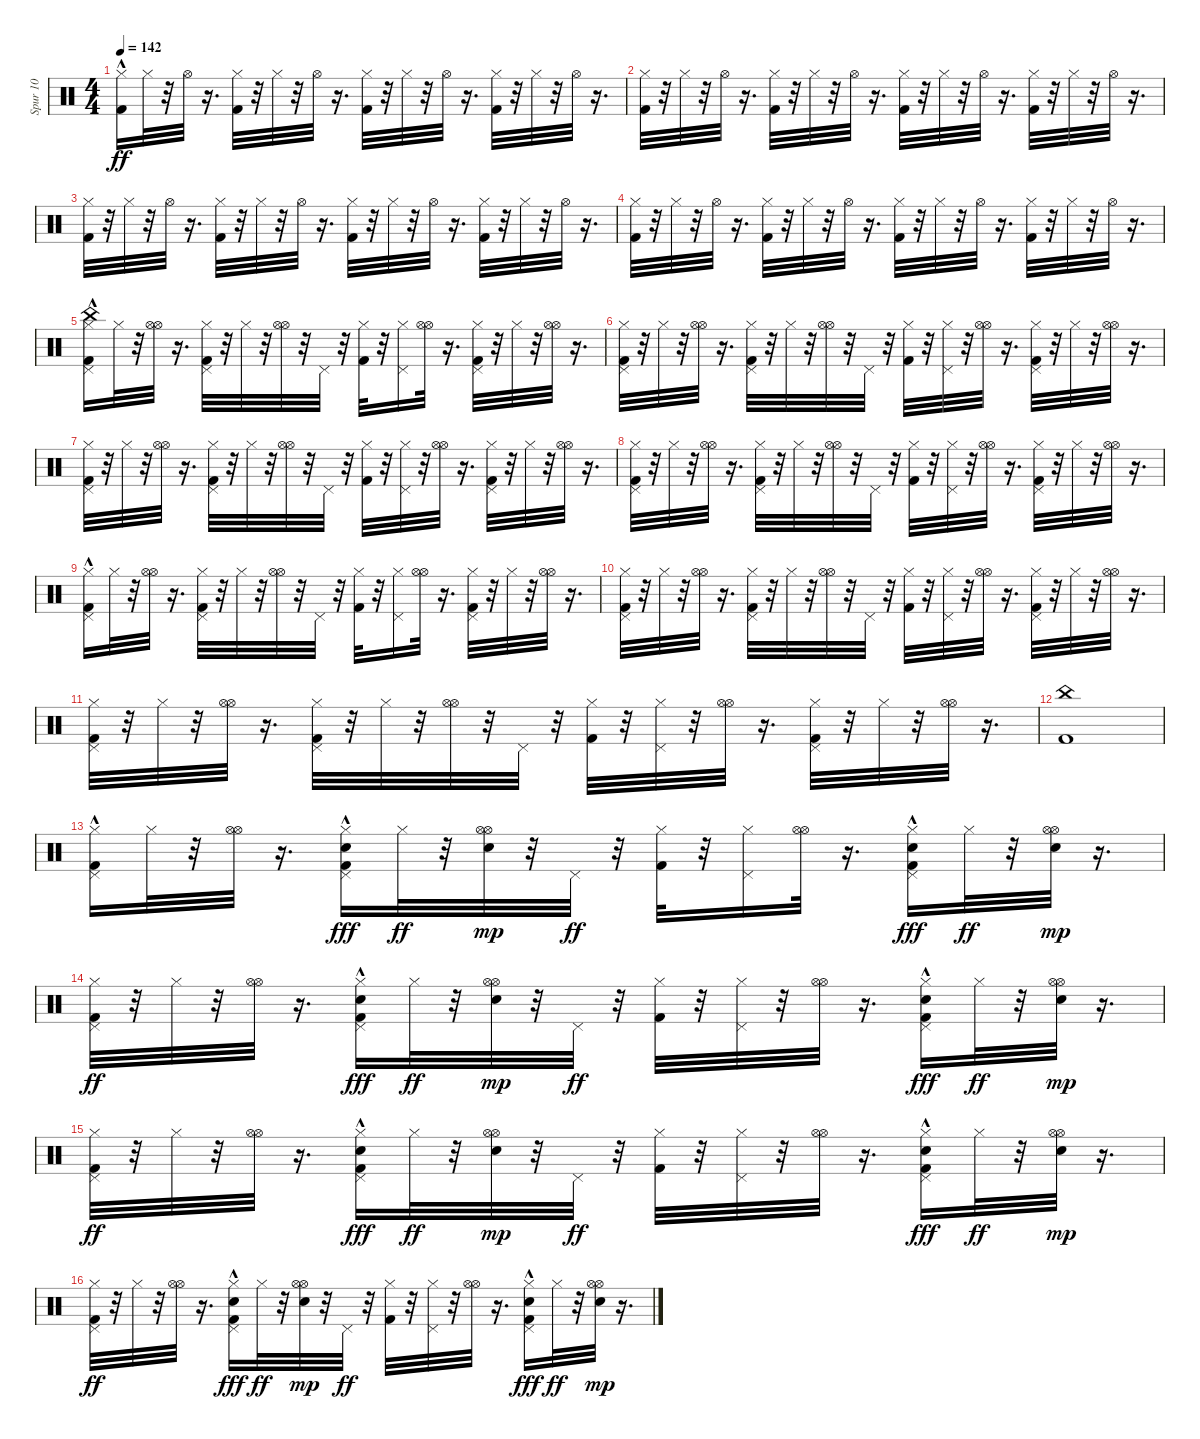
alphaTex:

\track ("Spur 10" "Spur 10") {instrument percussion}
\staff {score}
\articulation defaults
\ts (4 4)
\tempo 142
\clef neutral
\ks c
("Kick (hit) 2"{hac} "Hi-Hat (closed)").16{dy ff} "Hi-Hat (closed)".32 r.32 "Hi-Hat (open)".32 r.16{d} ("Kick (hit) 2" "Hi-Hat (closed)").32 r.32 "Hi-Hat (closed)".32 r.32 "Hi-Hat (open)".32 r.16{d} ("Kick (hit) 2" "Hi-Hat (closed)").32 r.32 "Hi-Hat (closed)".32 r.32 "Hi-Hat (open)".32 r.16{d} ("Kick (hit) 2" "Hi-Hat (closed)").32 r.32 "Hi-Hat (closed)".32 r.32 "Hi-Hat (open)".32 r.16{d} |
("Kick (hit) 2" "Hi-Hat (closed)").32 r.32 "Hi-Hat (closed)".32 r.32 "Hi-Hat (open)".32 r.16{d} ("Kick (hit) 2" "Hi-Hat (closed)").32 r.32 "Hi-Hat (closed)".32 r.32 "Hi-Hat (open)".32 r.16{d} ("Kick (hit) 2" "Hi-Hat (closed)").32 r.32 "Hi-Hat (closed)".32 r.32 "Hi-Hat (open)".32 r.16{d} ("Kick (hit) 2" "Hi-Hat (closed)").32 r.32 "Hi-Hat (closed)".32 r.32 "Hi-Hat (open)".32 r.16{d} |
("Kick (hit) 2" "Hi-Hat (closed)").32 r.32 "Hi-Hat (closed)".32 r.32 "Hi-Hat (open)".32 r.16{d} ("Kick (hit) 2" "Hi-Hat (closed)").32 r.32 "Hi-Hat (closed)".32 r.32 "Hi-Hat (open)".32 r.16{d} ("Kick (hit) 2" "Hi-Hat (closed)").32 r.32 "Hi-Hat (closed)".32 r.32 "Hi-Hat (open)".32 r.16{d} ("Kick (hit) 2" "Hi-Hat (closed)").32 r.32 "Hi-Hat (closed)".32 r.32 "Hi-Hat (open)".32 r.16{d} |
("Kick (hit) 2" "Hi-Hat (closed)").32 r.32 "Hi-Hat (closed)".32 r.32 "Hi-Hat (open)".32 r.16{d} ("Kick (hit) 2" "Hi-Hat (closed)").32 r.32 "Hi-Hat (closed)".32 r.32 "Hi-Hat (open)".32 r.16{d} ("Kick (hit) 2" "Hi-Hat (closed)").32 r.32 "Hi-Hat (closed)".32 r.32 "Hi-Hat (open)".32 r.16{d} ("Kick (hit) 2" "Hi-Hat (closed)").32 r.32 "Hi-Hat (closed)".32 r.32 "Hi-Hat (open)".32 r.16{d} |
("Kick (hit) 2"{hac} "Hi-Hat (closed)" "Pedal Hi-Hat (hit)" "China (hit)").16 "Hi-Hat (closed)".32 r.32 ("Hi-Hat (open)" "Hi-Hat (open)").32 r.16{d} ("Kick (hit) 2" "Hi-Hat (closed)" "Pedal Hi-Hat (hit)").32 r.32 "Hi-Hat (closed)".32 r.32 ("Hi-Hat (open)" "Hi-Hat (open)").32 r.32 "Pedal Hi-Hat (hit)".32 r.32 ("Kick (hit) 2" "Hi-Hat (closed)").32 r.32 ("Hi-Hat (closed)" "Pedal Hi-Hat (hit)").16 ("Hi-Hat (open)" "Hi-Hat (open)").32 r.16{d} ("Kick (hit) 2" "Hi-Hat (closed)" "Pedal Hi-Hat (hit)").32 r.32 "Hi-Hat (closed)".32 r.32 ("Hi-Hat (open)" "Hi-Hat (open)").32 r.16{d} |
("Kick (hit) 2" "Hi-Hat (closed)" "Pedal Hi-Hat (hit)").32 r.32 "Hi-Hat (closed)".32 r.32 ("Hi-Hat (open)" "Hi-Hat (open)").32 r.16{d} ("Kick (hit) 2" "Hi-Hat (closed)" "Pedal Hi-Hat (hit)").32 r.32 "Hi-Hat (closed)".32 r.32 ("Hi-Hat (open)" "Hi-Hat (open)").32 r.32 "Pedal Hi-Hat (hit)".32 r.32 ("Kick (hit) 2" "Hi-Hat (closed)").32 r.32 ("Hi-Hat (closed)" "Pedal Hi-Hat (hit)").32 r.32 ("Hi-Hat (open)" "Hi-Hat (open)").32 r.16{d} ("Kick (hit) 2" "Hi-Hat (closed)" "Pedal Hi-Hat (hit)").32 r.32 "Hi-Hat (closed)".32 r.32 ("Hi-Hat (open)" "Hi-Hat (open)").32 r.16{d} |
("Kick (hit) 2" "Hi-Hat (closed)" "Pedal Hi-Hat (hit)").32 r.32 "Hi-Hat (closed)".32 r.32 ("Hi-Hat (open)" "Hi-Hat (open)").32 r.16{d} ("Kick (hit) 2" "Hi-Hat (closed)" "Pedal Hi-Hat (hit)").32 r.32 "Hi-Hat (closed)".32 r.32 ("Hi-Hat (open)" "Hi-Hat (open)").32 r.32 "Pedal Hi-Hat (hit)".32 r.32 ("Kick (hit) 2" "Hi-Hat (closed)").32 r.32 ("Hi-Hat (closed)" "Pedal Hi-Hat (hit)").32 r.32 ("Hi-Hat (open)" "Hi-Hat (open)").32 r.16{d} ("Kick (hit) 2" "Hi-Hat (closed)" "Pedal Hi-Hat (hit)").32 r.32 "Hi-Hat (closed)".32 r.32 ("Hi-Hat (open)" "Hi-Hat (open)").32 r.16{d} |
("Kick (hit) 2" "Hi-Hat (closed)" "Pedal Hi-Hat (hit)").32 r.32 "Hi-Hat (closed)".32 r.32 ("Hi-Hat (open)" "Hi-Hat (open)").32 r.16{d} ("Kick (hit) 2" "Hi-Hat (closed)" "Pedal Hi-Hat (hit)").32 r.32 "Hi-Hat (closed)".32 r.32 ("Hi-Hat (open)" "Hi-Hat (open)").32 r.32 "Pedal Hi-Hat (hit)".32 r.32 ("Kick (hit) 2" "Hi-Hat (closed)").32 r.32 ("Hi-Hat (closed)" "Pedal Hi-Hat (hit)").32 r.32 ("Hi-Hat (open)" "Hi-Hat (open)").32 r.16{d} ("Kick (hit) 2" "Hi-Hat (closed)" "Pedal Hi-Hat (hit)").32 r.32 "Hi-Hat (closed)".32 r.32 ("Hi-Hat (open)" "Hi-Hat (open)").32 r.16{d} |
("Kick (hit) 2"{hac} "Hi-Hat (closed)" "Pedal Hi-Hat (hit)").16 "Hi-Hat (closed)".32 r.32 ("Hi-Hat (open)" "Hi-Hat (open)").32 r.16{d} ("Kick (hit) 2" "Hi-Hat (closed)" "Pedal Hi-Hat (hit)").32 r.32 "Hi-Hat (closed)".32 r.32 ("Hi-Hat (open)" "Hi-Hat (open)").32 r.32 "Pedal Hi-Hat (hit)".32 r.32 ("Kick (hit) 2" "Hi-Hat (closed)").32 r.32 ("Hi-Hat (closed)" "Pedal Hi-Hat (hit)").16 ("Hi-Hat (open)" "Hi-Hat (open)").32 r.16{d} ("Kick (hit) 2" "Hi-Hat (closed)" "Pedal Hi-Hat (hit)").32 r.32 "Hi-Hat (closed)".32 r.32 ("Hi-Hat (open)" "Hi-Hat (open)").32 r.16{d} |
("Kick (hit) 2" "Hi-Hat (closed)" "Pedal Hi-Hat (hit)").32 r.32 "Hi-Hat (closed)".32 r.32 ("Hi-Hat (open)" "Hi-Hat (open)").32 r.16{d} ("Kick (hit) 2" "Hi-Hat (closed)" "Pedal Hi-Hat (hit)").32 r.32 "Hi-Hat (closed)".32 r.32 ("Hi-Hat (open)" "Hi-Hat (open)").32 r.32 "Pedal Hi-Hat (hit)".32 r.32 ("Kick (hit) 2" "Hi-Hat (closed)").32 r.32 ("Hi-Hat (closed)" "Pedal Hi-Hat (hit)").32 r.32 ("Hi-Hat (open)" "Hi-Hat (open)").32 r.16{d} ("Kick (hit) 2" "Hi-Hat (closed)" "Pedal Hi-Hat (hit)").32 r.32 "Hi-Hat (closed)".32 r.32 ("Hi-Hat (open)" "Hi-Hat (open)").32 r.16{d} |
("Kick (hit) 2" "Hi-Hat (closed)" "Pedal Hi-Hat (hit)").32 r.32 "Hi-Hat (closed)".32 r.32 ("Hi-Hat (open)" "Hi-Hat (open)").32 r.16{d} ("Kick (hit) 2" "Hi-Hat (closed)" "Pedal Hi-Hat (hit)").32 r.32 "Hi-Hat (closed)".32 r.32 ("Hi-Hat (open)" "Hi-Hat (open)").32 r.32 "Pedal Hi-Hat (hit)".32 r.32 ("Kick (hit) 2" "Hi-Hat (closed)").32 r.32 ("Hi-Hat (closed)" "Pedal Hi-Hat (hit)").32 r.32 ("Hi-Hat (open)" "Hi-Hat (open)").32 r.16{d} ("Kick (hit) 2" "Hi-Hat (closed)" "Pedal Hi-Hat (hit)").32 r.32 "Hi-Hat (closed)".32 r.32 ("Hi-Hat (open)" "Hi-Hat (open)").32 r.16{d} |
("Kick (hit) 2" "China (hit)").1 |
("Kick (hit) 2"{hac} "Hi-Hat (closed)" "Pedal Hi-Hat (hit)").16 "Hi-Hat (closed)".32 r.32 ("Hi-Hat (open)" "Hi-Hat (open)").32 r.16{d} ("Kick (hit) 2" "Hi-Hat (closed)" "Pedal Hi-Hat (hit)" "Hand Clap (hit)"{hac}).16{dy fff balance 16} "Hi-Hat (closed)".32{dy ff} r.32 ("Hi-Hat (open)" "Hi-Hat (open)" "Hand Clap (hit)").32{dy mp balance 0} r.32 "Pedal Hi-Hat (hit)".32{dy ff} r.32 ("Kick (hit) 2" "Hi-Hat (closed)").32 r.32 ("Hi-Hat (closed)" "Pedal Hi-Hat (hit)").16 ("Hi-Hat (open)" "Hi-Hat (open)").32 r.16{d} ("Kick (hit) 2" "Hi-Hat (closed)" "Pedal Hi-Hat (hit)" "Hand Clap (hit)"{hac}).16{dy fff balance 16} "Hi-Hat (closed)".32{dy ff} r.32 ("Hi-Hat (open)" "Hi-Hat (open)" "Hand Clap (hit)").32{dy mp balance 0} r.16{d} |
("Kick (hit) 2" "Hi-Hat (closed)" "Pedal Hi-Hat (hit)").32{dy ff} r.32 "Hi-Hat (closed)".32 r.32 ("Hi-Hat (open)" "Hi-Hat (open)").32 r.16{d} ("Kick (hit) 2" "Hi-Hat (closed)" "Pedal Hi-Hat (hit)" "Hand Clap (hit)"{hac}).16{dy fff balance 16} "Hi-Hat (closed)".32{dy ff} r.32 ("Hi-Hat (open)" "Hi-Hat (open)" "Hand Clap (hit)").32{dy mp balance 0} r.32 "Pedal Hi-Hat (hit)".32{dy ff} r.32 ("Kick (hit) 2" "Hi-Hat (closed)").32 r.32 ("Hi-Hat (closed)" "Pedal Hi-Hat (hit)").32 r.32 ("Hi-Hat (open)" "Hi-Hat (open)").32 r.16{d} ("Kick (hit) 2" "Hi-Hat (closed)" "Pedal Hi-Hat (hit)" "Hand Clap (hit)"{hac}).16{dy fff balance 16} "Hi-Hat (closed)".32{dy ff} r.32 ("Hi-Hat (open)" "Hi-Hat (open)" "Hand Clap (hit)").32{dy mp balance 0} r.16{d} |
("Kick (hit) 2" "Hi-Hat (closed)" "Pedal Hi-Hat (hit)").32{dy ff} r.32 "Hi-Hat (closed)".32 r.32 ("Hi-Hat (open)" "Hi-Hat (open)").32 r.16{d} ("Kick (hit) 2" "Hi-Hat (closed)" "Pedal Hi-Hat (hit)" "Hand Clap (hit)"{hac}).16{dy fff balance 16} "Hi-Hat (closed)".32{dy ff} r.32 ("Hi-Hat (open)" "Hi-Hat (open)" "Hand Clap (hit)").32{dy mp balance 0} r.32 "Pedal Hi-Hat (hit)".32{dy ff} r.32 ("Kick (hit) 2" "Hi-Hat (closed)").32 r.32 ("Hi-Hat (closed)" "Pedal Hi-Hat (hit)").32 r.32 ("Hi-Hat (open)" "Hi-Hat (open)").32 r.16{d} ("Kick (hit) 2" "Hi-Hat (closed)" "Pedal Hi-Hat (hit)" "Hand Clap (hit)"{hac}).16{dy fff balance 16} "Hi-Hat (closed)".32{dy ff} r.32 ("Hi-Hat (open)" "Hi-Hat (open)" "Hand Clap (hit)").32{dy mp balance 0} r.16{d} |
("Kick (hit) 2" "Hi-Hat (closed)" "Pedal Hi-Hat (hit)").32{dy ff} r.32 "Hi-Hat (closed)".32 r.32 ("Hi-Hat (open)" "Hi-Hat (open)").32 r.16{d} ("Kick (hit) 2" "Hi-Hat (closed)" "Pedal Hi-Hat (hit)" "Hand Clap (hit)"{hac}).16{dy fff balance 16} "Hi-Hat (closed)".32{dy ff} r.32 ("Hi-Hat (open)" "Hi-Hat (open)" "Hand Clap (hit)").32{dy mp balance 0} r.32 "Pedal Hi-Hat (hit)".32{dy ff} r.32 ("Kick (hit) 2" "Hi-Hat (closed)").32 r.32 ("Hi-Hat (closed)" "Pedal Hi-Hat (hit)").32 r.32 ("Hi-Hat (open)" "Hi-Hat (open)").32 r.16{d} ("Kick (hit) 2" "Hi-Hat (closed)" "Pedal Hi-Hat (hit)" "Hand Clap (hit)"{hac}).16{dy fff balance 16} "Hi-Hat (closed)".32{dy ff} r.32 ("Hi-Hat (open)" "Hi-Hat (open)" "Hand Clap (hit)").32{dy mp balance 0} r.16{d}
